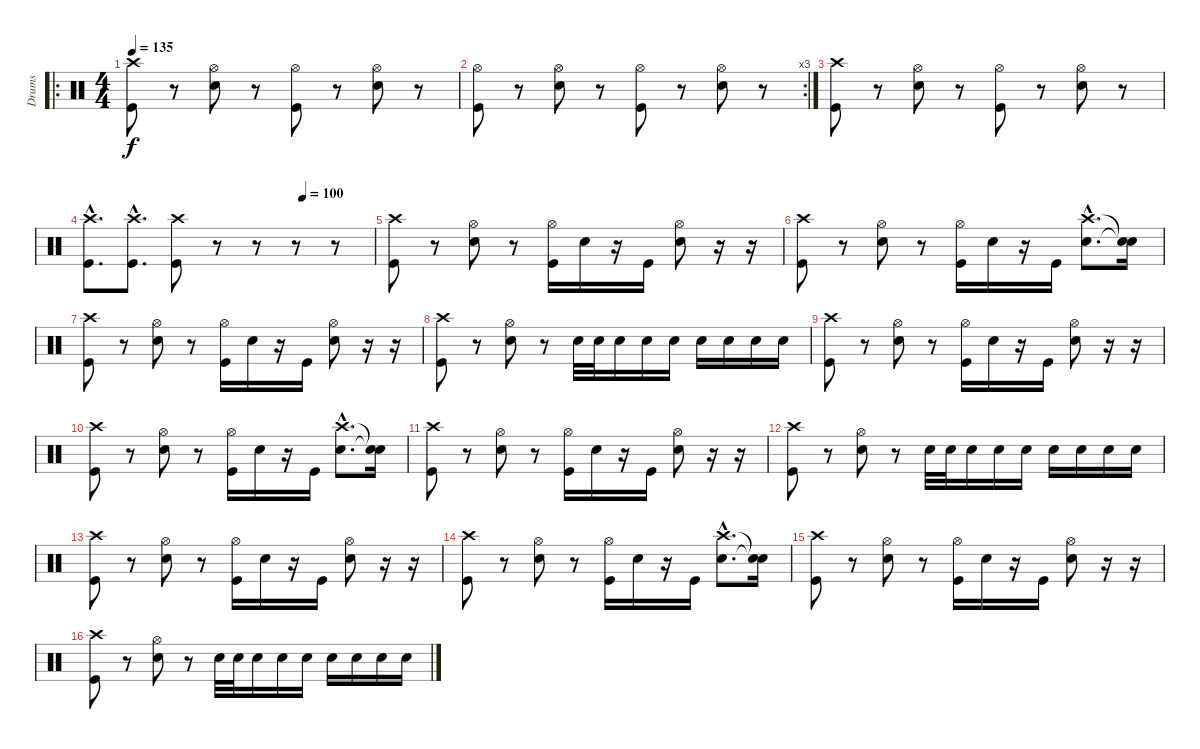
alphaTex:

\track ("Drums" "Drums") {instrument percussion}
\staff {score}
\articulation defaults
\ro
\ts (4 4)
\tempo 135
\clef neutral
\ks c
("Crash high (hit)" "Kick (hit)").8{dy f} r.8 ("Hi-Hat (open)" "Snare (hit) 2").8 r.8 ("Hi-Hat (open)" "Kick (hit)").8 r.8 ("Hi-Hat (open)" "Snare (hit) 2").8 r.8 |
\rc 3
("Hi-Hat (open)" "Kick (hit)").8 r.8 ("Hi-Hat (open)" "Snare (hit) 2").8 r.8 ("Hi-Hat (open)" "Kick (hit)").8 r.8 ("Hi-Hat (open)" "Snare (hit) 2").8 r.8 |
("Crash high (hit)" "Kick (hit)").8 r.8 ("Hi-Hat (open)" "Snare (hit) 2").8 r.8 ("Hi-Hat (open)" "Kick (hit)").8 r.8 ("Hi-Hat (open)" "Snare (hit) 2").8 r.8 |
\tempo (100 0.75)
("Crash high (hit)"{hac} "Kick (hit)"{hac}).8{d} ("Crash high (hit)"{hac} "Kick (hit)"{hac}).8{d} ("Crash high (hit)" "Kick (hit)").8 r.8 r.8 r.8 r.8 |
("Crash high (hit)" "Kick (hit)").8 r.8 ("Hi-Hat (open)" "Snare (hit) 2").8 r.8 ("Hi-Hat (open)" "Kick (hit)").16 "Snare (hit) 2".16 r.16 "Kick (hit)".16 ("Hi-Hat (open)" "Snare (hit) 2").8 r.16 r.16 |
("Crash high (hit)" "Kick (hit)").8 r.8 ("Hi-Hat (open)" "Snare (hit) 2").8 r.8 ("Hi-Hat (open)" "Kick (hit)").16 "Snare (hit) 2".16 r.16 "Kick (hit)".16 ("Crash high (hit)"{hac} "Snare (hit) 2"{hac}).8{d} ("Snare (hit)"{t} "Snare (hit)"{t}).16 |
("Crash high (hit)" "Kick (hit)").8 r.8 ("Hi-Hat (open)" "Snare (hit) 2").8 r.8 ("Hi-Hat (open)" "Kick (hit)").16 "Snare (hit) 2".16 r.16 "Kick (hit)".16 ("Hi-Hat (open)" "Snare (hit) 2").8 r.16 r.16 |
("Crash high (hit)" "Kick (hit)").8 r.8 ("Hi-Hat (open)" "Snare (hit) 2").8 r.8 "Snare (hit) 2".32 "Snare (hit) 2".32 "Snare (hit) 2".16 "Snare (hit) 2".16 "Snare (hit) 2".16 "Snare (hit) 2".16 "Snare (hit) 2".16 "Snare (hit) 2".16 "Snare (hit) 2".16 |
("Crash high (hit)" "Kick (hit)").8 r.8 ("Hi-Hat (open)" "Snare (hit) 2").8 r.8 ("Hi-Hat (open)" "Kick (hit)").16 "Snare (hit) 2".16 r.16 "Kick (hit)".16 ("Hi-Hat (open)" "Snare (hit) 2").8 r.16 r.16 |
("Crash high (hit)" "Kick (hit)").8 r.8 ("Hi-Hat (open)" "Snare (hit) 2").8 r.8 ("Hi-Hat (open)" "Kick (hit)").16 "Snare (hit) 2".16 r.16 "Kick (hit)".16 ("Crash high (hit)"{hac} "Snare (hit) 2"{hac}).8{d} ("Snare (hit)"{t} "Snare (hit)"{t}).16 |
("Crash high (hit)" "Kick (hit)").8 r.8 ("Hi-Hat (open)" "Snare (hit) 2").8 r.8 ("Hi-Hat (open)" "Kick (hit)").16 "Snare (hit) 2".16 r.16 "Kick (hit)".16 ("Hi-Hat (open)" "Snare (hit) 2").8 r.16 r.16 |
("Crash high (hit)" "Kick (hit)").8 r.8 ("Hi-Hat (open)" "Snare (hit) 2").8 r.8 "Snare (hit) 2".32 "Snare (hit) 2".32 "Snare (hit) 2".16 "Snare (hit) 2".16 "Snare (hit) 2".16 "Snare (hit) 2".16 "Snare (hit) 2".16 "Snare (hit) 2".16 "Snare (hit) 2".16 |
("Crash high (hit)" "Kick (hit)").8 r.8 ("Hi-Hat (open)" "Snare (hit) 2").8 r.8 ("Hi-Hat (open)" "Kick (hit)").16 "Snare (hit) 2".16 r.16 "Kick (hit)".16 ("Hi-Hat (open)" "Snare (hit) 2").8 r.16 r.16 |
("Crash high (hit)" "Kick (hit)").8 r.8 ("Hi-Hat (open)" "Snare (hit) 2").8 r.8 ("Hi-Hat (open)" "Kick (hit)").16 "Snare (hit) 2".16 r.16 "Kick (hit)".16 ("Crash high (hit)"{hac} "Snare (hit) 2"{hac}).8{d} ("Snare (hit)"{t} "Snare (hit)"{t}).16 |
("Crash high (hit)" "Kick (hit)").8 r.8 ("Hi-Hat (open)" "Snare (hit) 2").8 r.8 ("Hi-Hat (open)" "Kick (hit)").16 "Snare (hit) 2".16 r.16 "Kick (hit)".16 ("Hi-Hat (open)" "Snare (hit) 2").8 r.16 r.16 |
("Crash high (hit)" "Kick (hit)").8 r.8 ("Hi-Hat (open)" "Snare (hit) 2").8 r.8 "Snare (hit) 2".32 "Snare (hit) 2".32 "Snare (hit) 2".16 "Snare (hit) 2".16 "Snare (hit) 2".16 "Snare (hit) 2".16 "Snare (hit) 2".16 "Snare (hit) 2".16 "Snare (hit) 2".16
